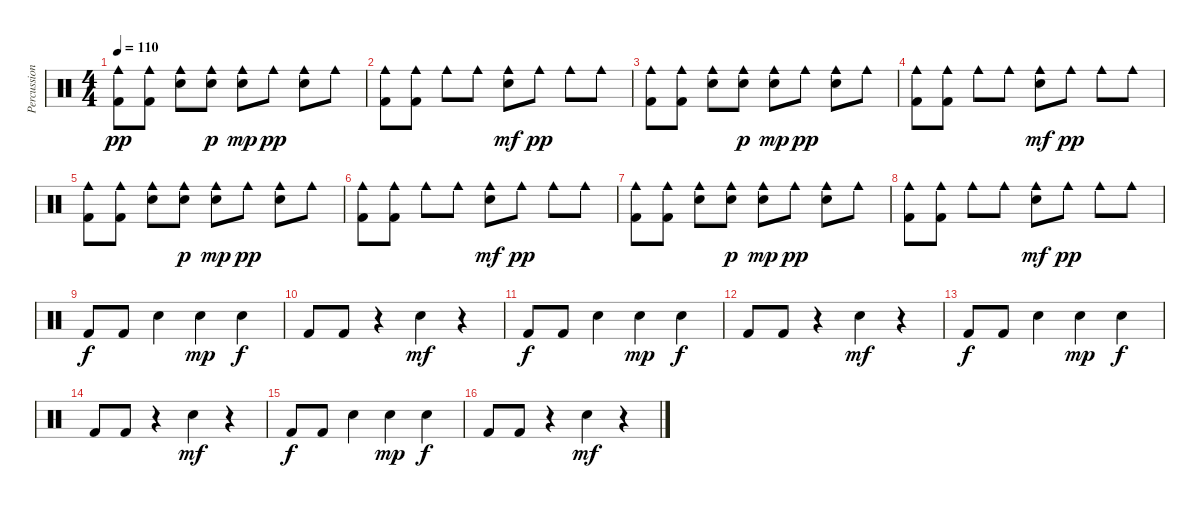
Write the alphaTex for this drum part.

\track ("Percussions" "Percussion") {instrument percussion}
\staff {score}
\articulation defaults
\ts (4 4)
\tempo 110
\clef neutral
\ks c
("Cowbell medium (hit)" "Kick (hit) 2").8{dy pp} ("Cowbell medium (hit)" "Kick (hit) 2").8 ("Cowbell medium (hit)" "Snare (hit) 2").8 ("Cowbell medium (hit)" "Snare (hit) 2").8{dy p} ("Cowbell medium (hit)" "Snare (hit) 2").8{dy mp} "Cowbell medium (hit)".8{dy pp} ("Cowbell medium (hit)" "Snare (hit) 2").8 "Cowbell medium (hit)".8 |
("Cowbell medium (hit)" "Kick (hit) 2").8 ("Cowbell medium (hit)" "Kick (hit) 2").8 "Cowbell medium (hit)".8 "Cowbell medium (hit)".8 ("Cowbell medium (hit)" "Snare (hit) 2").8{dy mf} "Cowbell medium (hit)".8{dy pp} "Cowbell medium (hit)".8 "Cowbell medium (hit)".8 |
("Cowbell medium (hit)" "Kick (hit) 2").8 ("Cowbell medium (hit)" "Kick (hit) 2").8 ("Cowbell medium (hit)" "Snare (hit) 2").8 ("Cowbell medium (hit)" "Snare (hit) 2").8{dy p} ("Cowbell medium (hit)" "Snare (hit) 2").8{dy mp} "Cowbell medium (hit)".8{dy pp} ("Cowbell medium (hit)" "Snare (hit) 2").8 "Cowbell medium (hit)".8 |
("Cowbell medium (hit)" "Kick (hit) 2").8 ("Cowbell medium (hit)" "Kick (hit) 2").8 "Cowbell medium (hit)".8 "Cowbell medium (hit)".8 ("Cowbell medium (hit)" "Snare (hit) 2").8{dy mf} "Cowbell medium (hit)".8{dy pp} "Cowbell medium (hit)".8 "Cowbell medium (hit)".8 |
("Cowbell medium (hit)" "Kick (hit) 2").8 ("Cowbell medium (hit)" "Kick (hit) 2").8 ("Cowbell medium (hit)" "Snare (hit) 2").8 ("Cowbell medium (hit)" "Snare (hit) 2").8{dy p} ("Cowbell medium (hit)" "Snare (hit) 2").8{dy mp} "Cowbell medium (hit)".8{dy pp} ("Cowbell medium (hit)" "Snare (hit) 2").8 "Cowbell medium (hit)".8 |
("Cowbell medium (hit)" "Kick (hit) 2").8 ("Cowbell medium (hit)" "Kick (hit) 2").8 "Cowbell medium (hit)".8 "Cowbell medium (hit)".8 ("Cowbell medium (hit)" "Snare (hit) 2").8{dy mf} "Cowbell medium (hit)".8{dy pp} "Cowbell medium (hit)".8 "Cowbell medium (hit)".8 |
("Cowbell medium (hit)" "Kick (hit) 2").8 ("Cowbell medium (hit)" "Kick (hit) 2").8 ("Cowbell medium (hit)" "Snare (hit) 2").8 ("Cowbell medium (hit)" "Snare (hit) 2").8{dy p} ("Cowbell medium (hit)" "Snare (hit) 2").8{dy mp} "Cowbell medium (hit)".8{dy pp} ("Cowbell medium (hit)" "Snare (hit) 2").8 "Cowbell medium (hit)".8 |
("Cowbell medium (hit)" "Kick (hit) 2").8 ("Cowbell medium (hit)" "Kick (hit) 2").8 "Cowbell medium (hit)".8 "Cowbell medium (hit)".8 ("Cowbell medium (hit)" "Snare (hit) 2").8{dy mf} "Cowbell medium (hit)".8{dy pp} "Cowbell medium (hit)".8 "Cowbell medium (hit)".8 |
"Kick (hit) 2".8{dy f} "Kick (hit) 2".8 "Snare (hit) 2".4 "Snare (hit) 2".4{dy mp} "Snare (hit) 2".4{dy f} |
"Kick (hit) 2".8 "Kick (hit) 2".8 r.4 "Snare (hit) 2".4{dy mf} r.4 |
"Kick (hit) 2".8{dy f} "Kick (hit) 2".8 "Snare (hit) 2".4 "Snare (hit) 2".4{dy mp} "Snare (hit) 2".4{dy f} |
"Kick (hit) 2".8 "Kick (hit) 2".8 r.4 "Snare (hit) 2".4{dy mf} r.4 |
"Kick (hit) 2".8{dy f} "Kick (hit) 2".8 "Snare (hit) 2".4 "Snare (hit) 2".4{dy mp} "Snare (hit) 2".4{dy f} |
"Kick (hit) 2".8 "Kick (hit) 2".8 r.4 "Snare (hit) 2".4{dy mf} r.4 |
"Kick (hit) 2".8{dy f} "Kick (hit) 2".8 "Snare (hit) 2".4 "Snare (hit) 2".4{dy mp} "Snare (hit) 2".4{dy f} |
"Kick (hit) 2".8 "Kick (hit) 2".8 r.4 "Snare (hit) 2".4{dy mf} r.4
